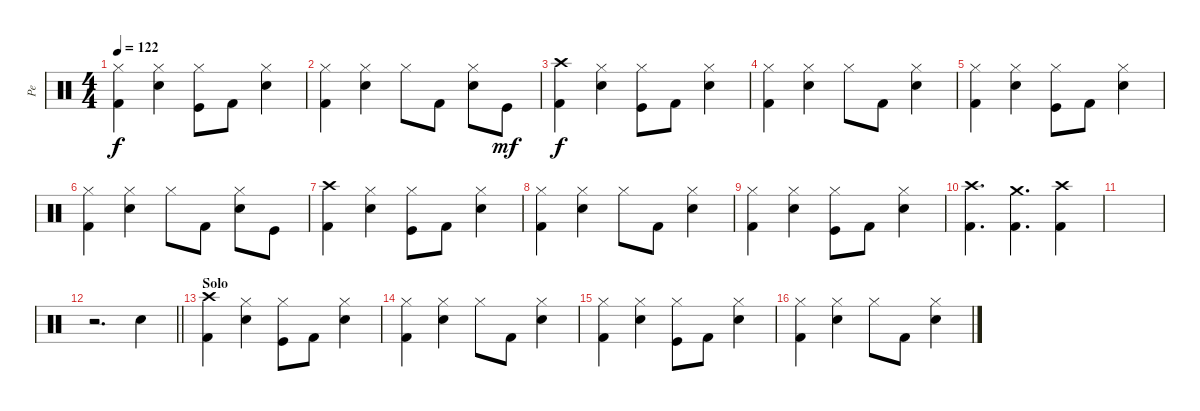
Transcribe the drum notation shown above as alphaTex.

\track ("Pe" "Pe") {instrument percussion}
\staff {score}
\articulation defaults
\ts (4 4)
\tempo 122
\clef neutral
\ks c
("Kick (hit) 2" "Hi-Hat (closed)").4{dy f} ("Electric Snare (hit)" "Hi-Hat (closed)").4 ("Kick (hit)" "Hi-Hat (closed)").8 "Kick (hit) 2".8 ("Electric Snare (hit)" "Hi-Hat (closed)").4 |
("Kick (hit) 2" "Hi-Hat (closed)").4 ("Electric Snare (hit)" "Hi-Hat (closed)").4 "Hi-Hat (closed)".8 "Kick (hit) 2".8 ("Electric Snare (hit)" "Hi-Hat (closed)").8 "Kick (hit)".8{dy mf} |
("Kick (hit) 2" "Crash high (hit)").4{dy f} ("Electric Snare (hit)" "Hi-Hat (closed)").4 ("Kick (hit)" "Hi-Hat (closed)").8 "Kick (hit) 2".8 ("Electric Snare (hit)" "Hi-Hat (closed)").4 |
("Kick (hit) 2" "Hi-Hat (closed)").4 ("Electric Snare (hit)" "Hi-Hat (closed)").4 "Hi-Hat (closed)".8 "Kick (hit) 2".8 ("Electric Snare (hit)" "Hi-Hat (closed)").4 |
("Kick (hit) 2" "Hi-Hat (closed)").4 ("Electric Snare (hit)" "Hi-Hat (closed)").4 ("Kick (hit)" "Hi-Hat (closed)").8 "Kick (hit) 2".8 ("Electric Snare (hit)" "Hi-Hat (closed)").4 |
("Kick (hit) 2" "Hi-Hat (closed)").4 ("Electric Snare (hit)" "Hi-Hat (closed)").4 "Hi-Hat (closed)".8 "Kick (hit) 2".8 ("Electric Snare (hit)" "Hi-Hat (closed)").8 "Kick (hit)".8 |
("Kick (hit) 2" "Crash high (hit)").4 ("Electric Snare (hit)" "Hi-Hat (closed)").4 ("Kick (hit)" "Hi-Hat (closed)").8 "Kick (hit) 2".8 ("Electric Snare (hit)" "Hi-Hat (closed)").4 |
("Kick (hit) 2" "Hi-Hat (closed)").4 ("Electric Snare (hit)" "Hi-Hat (closed)").4 "Hi-Hat (closed)".8 "Kick (hit) 2".8 ("Electric Snare (hit)" "Hi-Hat (closed)").4 |
("Kick (hit) 2" "Hi-Hat (closed)").4 ("Electric Snare (hit)" "Hi-Hat (closed)").4 ("Kick (hit)" "Hi-Hat (closed)").8 "Kick (hit) 2".8 ("Electric Snare (hit)" "Hi-Hat (closed)").4 |
("Kick (hit) 2" "Crash high (hit)").4{d} ("Kick (hit) 2" "Crash medium (hit)").4{d} ("Kick (hit) 2" "Crash high (hit)").4 |
|
\barLineRight lightlight
r.2{d} "Electric Snare (hit)".4 |
\section ("" "Solo")
("Kick (hit) 2" "Crash high (hit)").4 ("Electric Snare (hit)" "Hi-Hat (closed)").4 ("Kick (hit)" "Hi-Hat (closed)").8 "Kick (hit) 2".8 ("Electric Snare (hit)" "Hi-Hat (closed)").4 |
("Kick (hit) 2" "Hi-Hat (closed)").4 ("Electric Snare (hit)" "Hi-Hat (closed)").4 "Hi-Hat (closed)".8 "Kick (hit) 2".8 ("Electric Snare (hit)" "Hi-Hat (closed)").4 |
("Kick (hit) 2" "Hi-Hat (closed)").4 ("Electric Snare (hit)" "Hi-Hat (closed)").4 ("Kick (hit)" "Hi-Hat (closed)").8 "Kick (hit) 2".8 ("Electric Snare (hit)" "Hi-Hat (closed)").4 |
("Kick (hit) 2" "Hi-Hat (closed)").4 ("Electric Snare (hit)" "Hi-Hat (closed)").4 "Hi-Hat (closed)".8 "Kick (hit) 2".8 ("Electric Snare (hit)" "Hi-Hat (closed)").4
